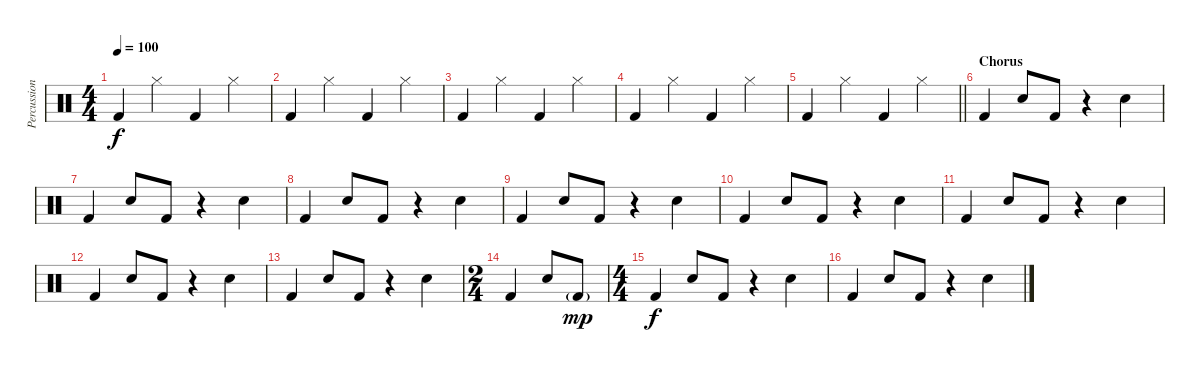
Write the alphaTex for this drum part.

\track ("Percussion" "Percussion") {instrument percussion}
\staff {score}
\articulation defaults
\ts (4 4)
\tempo 100
\clef neutral
\ks c "Kick (hit) 2".4{dy f} "Hi-Hat (closed)".4 "Kick (hit) 2".4 "Hi-Hat (closed)".4
|
"Kick (hit) 2".4 "Hi-Hat (closed)".4 "Kick (hit) 2".4 "Hi-Hat (closed)".4 |
"Kick (hit) 2".4 "Hi-Hat (closed)".4 "Kick (hit) 2".4 "Hi-Hat (closed)".4 |
"Kick (hit) 2".4 "Hi-Hat (closed)".4 "Kick (hit) 2".4 "Hi-Hat (closed)".4 |
\barLineRight lightlight "Kick (hit) 2".4 "Hi-Hat (closed)".4 "Kick (hit) 2".4 "Hi-Hat (closed)".4
|
\section ("" "Chorus")
"Kick (hit) 2".4 "Snare (hit) 2".8 "Kick (hit) 2".8 r.4 "Snare (hit) 2".4 |
"Kick (hit) 2".4 "Snare (hit) 2".8 "Kick (hit) 2".8 r.4 "Snare (hit) 2".4 |
"Kick (hit) 2".4 "Snare (hit) 2".8 "Kick (hit) 2".8 r.4 "Snare (hit) 2".4 |
"Kick (hit) 2".4 "Snare (hit) 2".8 "Kick (hit) 2".8 r.4 "Snare (hit) 2".4 |
"Kick (hit) 2".4 "Snare (hit) 2".8 "Kick (hit) 2".8 r.4 "Snare (hit) 2".4 |
"Kick (hit) 2".4 "Snare (hit) 2".8 "Kick (hit) 2".8 r.4 "Snare (hit) 2".4 |
"Kick (hit) 2".4 "Snare (hit) 2".8 "Kick (hit) 2".8 r.4 "Snare (hit) 2".4 |
"Kick (hit) 2".4 "Snare (hit) 2".8 "Kick (hit) 2".8 r.4 "Snare (hit) 2".4 |
\ts (2 4)
"Kick (hit) 2".4 "Snare (hit) 2".8 "Kick (hit) 2"{g}.8{dy mp} |
\ts (4 4)
"Kick (hit) 2".4{dy f} "Snare (hit) 2".8 "Kick (hit) 2".8 r.4 "Snare (hit) 2".4 |
"Kick (hit) 2".4 "Snare (hit) 2".8 "Kick (hit) 2".8 r.4 "Snare (hit) 2".4
